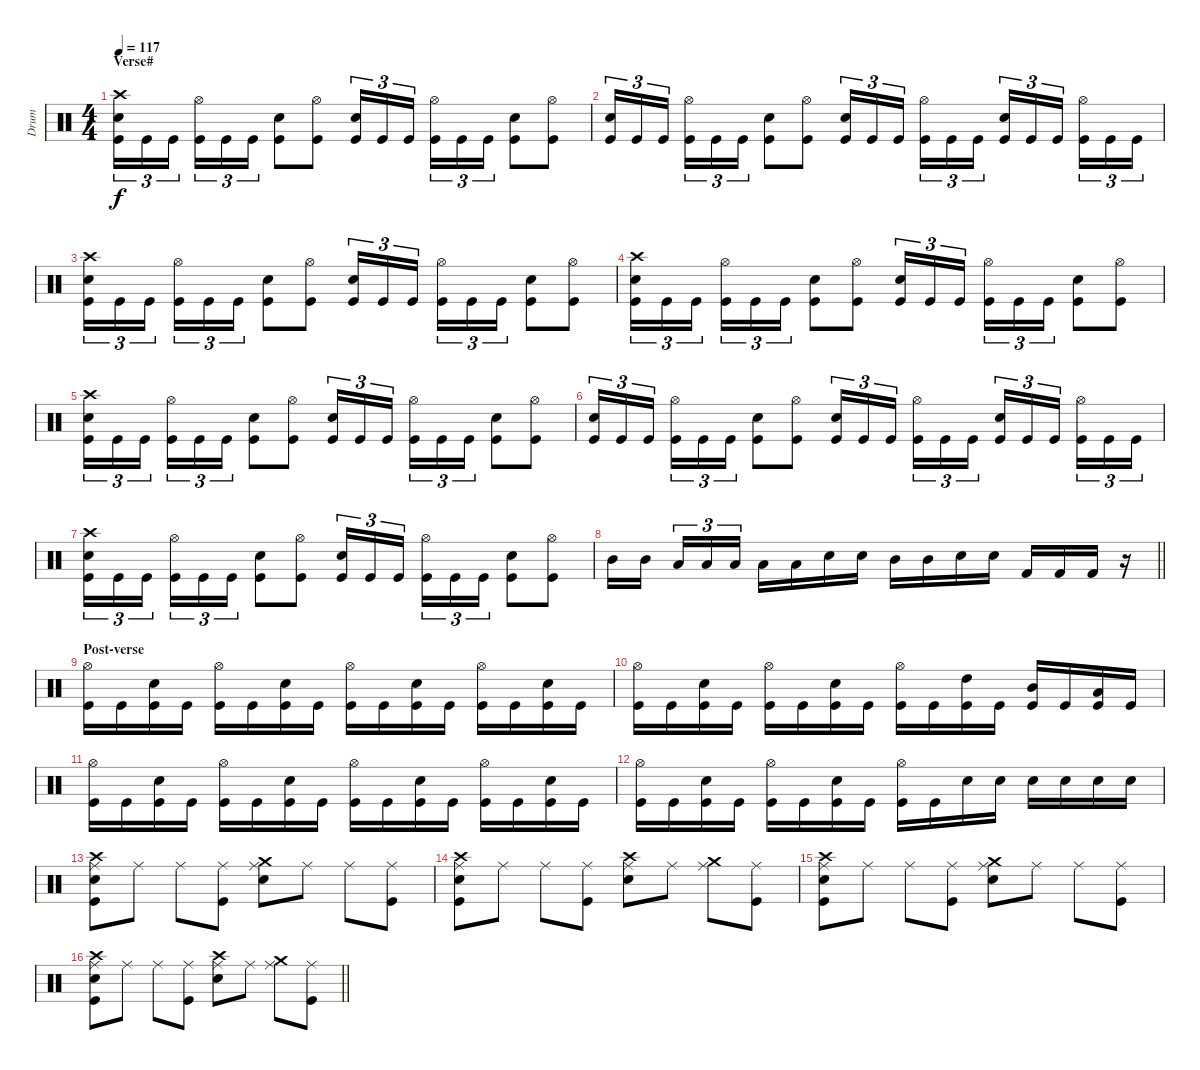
\track ("Drum" "Drum") {instrument percussion}
\staff {score}
\articulation defaults
\ts (4 4)
\section ("" "Verse#")
\tempo 117
\clef neutral
\ks c
("Crash high (hit)" "Kick (hit)" "Snare (hit) 2").16{tu (3 2) dy f} "Kick (hit)".16{tu (3 2)} "Kick (hit)".16{tu (3 2) beam splitsecondary} ("Kick (hit)" "Hi-Hat (open)").16{tu (3 2)} "Kick (hit)".16{tu (3 2)} "Kick (hit)".16{tu (3 2)} ("Kick (hit)" "Snare (hit) 2").8 ("Kick (hit)" "Hi-Hat (open)").8 ("Kick (hit)" "Snare (hit) 2").16{tu (3 2)} "Kick (hit)".16{tu (3 2)} "Kick (hit)".16{tu (3 2) beam splitsecondary} ("Kick (hit)" "Hi-Hat (open)").16{tu (3 2)} "Kick (hit)".16{tu (3 2)} "Kick (hit)".16{tu (3 2)} ("Kick (hit)" "Snare (hit) 2").8 ("Kick (hit)" "Hi-Hat (open)").8 |
("Kick (hit)" "Snare (hit) 2").16{tu (3 2)} "Kick (hit)".16{tu (3 2)} "Kick (hit)".16{tu (3 2) beam splitsecondary} ("Kick (hit)" "Hi-Hat (open)").16{tu (3 2)} "Kick (hit)".16{tu (3 2)} "Kick (hit)".16{tu (3 2)} ("Kick (hit)" "Snare (hit) 2").8 ("Kick (hit)" "Hi-Hat (open)").8 ("Kick (hit)" "Snare (hit) 2").16{tu (3 2)} "Kick (hit)".16{tu (3 2)} "Kick (hit)".16{tu (3 2) beam splitsecondary} ("Kick (hit)" "Hi-Hat (open)").16{tu (3 2)} "Kick (hit)".16{tu (3 2)} "Kick (hit)".16{tu (3 2)} ("Kick (hit)" "Snare (hit) 2").16{tu (3 2)} "Kick (hit)".16{tu (3 2)} "Kick (hit)".16{tu (3 2) beam splitsecondary} ("Kick (hit)" "Hi-Hat (open)").16{tu (3 2)} "Kick (hit)".16{tu (3 2)} "Kick (hit)".16{tu (3 2)} |
("Crash high (hit)" "Kick (hit)" "Snare (hit) 2").16{tu (3 2)} "Kick (hit)".16{tu (3 2)} "Kick (hit)".16{tu (3 2) beam splitsecondary} ("Kick (hit)" "Hi-Hat (open)").16{tu (3 2)} "Kick (hit)".16{tu (3 2)} "Kick (hit)".16{tu (3 2)} ("Kick (hit)" "Snare (hit) 2").8 ("Kick (hit)" "Hi-Hat (open)").8 ("Kick (hit)" "Snare (hit) 2").16{tu (3 2)} "Kick (hit)".16{tu (3 2)} "Kick (hit)".16{tu (3 2) beam splitsecondary} ("Kick (hit)" "Hi-Hat (open)").16{tu (3 2)} "Kick (hit)".16{tu (3 2)} "Kick (hit)".16{tu (3 2)} ("Kick (hit)" "Snare (hit) 2").8 ("Kick (hit)" "Hi-Hat (open)").8 |
("Crash high (hit)" "Kick (hit)" "Snare (hit) 2").16{tu (3 2)} "Kick (hit)".16{tu (3 2)} "Kick (hit)".16{tu (3 2) beam splitsecondary} ("Kick (hit)" "Hi-Hat (open)").16{tu (3 2)} "Kick (hit)".16{tu (3 2)} "Kick (hit)".16{tu (3 2)} ("Kick (hit)" "Snare (hit) 2").8 ("Kick (hit)" "Hi-Hat (open)").8 ("Kick (hit)" "Snare (hit) 2").16{tu (3 2)} "Kick (hit)".16{tu (3 2)} "Kick (hit)".16{tu (3 2) beam splitsecondary} ("Kick (hit)" "Hi-Hat (open)").16{tu (3 2)} "Kick (hit)".16{tu (3 2)} "Kick (hit)".16{tu (3 2)} ("Kick (hit)" "Snare (hit) 2").8 ("Kick (hit)" "Hi-Hat (open)").8 |
("Crash high (hit)" "Kick (hit)" "Snare (hit) 2").16{tu (3 2)} "Kick (hit)".16{tu (3 2)} "Kick (hit)".16{tu (3 2) beam splitsecondary} ("Kick (hit)" "Hi-Hat (open)").16{tu (3 2)} "Kick (hit)".16{tu (3 2)} "Kick (hit)".16{tu (3 2)} ("Kick (hit)" "Snare (hit) 2").8 ("Kick (hit)" "Hi-Hat (open)").8 ("Kick (hit)" "Snare (hit) 2").16{tu (3 2)} "Kick (hit)".16{tu (3 2)} "Kick (hit)".16{tu (3 2) beam splitsecondary} ("Kick (hit)" "Hi-Hat (open)").16{tu (3 2)} "Kick (hit)".16{tu (3 2)} "Kick (hit)".16{tu (3 2)} ("Kick (hit)" "Snare (hit) 2").8 ("Kick (hit)" "Hi-Hat (open)").8 |
("Kick (hit)" "Snare (hit) 2").16{tu (3 2)} "Kick (hit)".16{tu (3 2)} "Kick (hit)".16{tu (3 2) beam splitsecondary} ("Kick (hit)" "Hi-Hat (open)").16{tu (3 2)} "Kick (hit)".16{tu (3 2)} "Kick (hit)".16{tu (3 2)} ("Kick (hit)" "Snare (hit) 2").8 ("Kick (hit)" "Hi-Hat (open)").8 ("Kick (hit)" "Snare (hit) 2").16{tu (3 2)} "Kick (hit)".16{tu (3 2)} "Kick (hit)".16{tu (3 2) beam splitsecondary} ("Kick (hit)" "Hi-Hat (open)").16{tu (3 2)} "Kick (hit)".16{tu (3 2)} "Kick (hit)".16{tu (3 2)} ("Kick (hit)" "Snare (hit) 2").16{tu (3 2)} "Kick (hit)".16{tu (3 2)} "Kick (hit)".16{tu (3 2) beam splitsecondary} ("Kick (hit)" "Hi-Hat (open)").16{tu (3 2)} "Kick (hit)".16{tu (3 2)} "Kick (hit)".16{tu (3 2)} |
("Crash high (hit)" "Kick (hit)" "Snare (hit) 2").16{tu (3 2)} "Kick (hit)".16{tu (3 2)} "Kick (hit)".16{tu (3 2) beam splitsecondary} ("Kick (hit)" "Hi-Hat (open)").16{tu (3 2)} "Kick (hit)".16{tu (3 2)} "Kick (hit)".16{tu (3 2)} ("Kick (hit)" "Snare (hit) 2").8 ("Kick (hit)" "Hi-Hat (open)").8 ("Kick (hit)" "Snare (hit) 2").16{tu (3 2)} "Kick (hit)".16{tu (3 2)} "Kick (hit)".16{tu (3 2) beam splitsecondary} ("Kick (hit)" "Hi-Hat (open)").16{tu (3 2)} "Kick (hit)".16{tu (3 2)} "Kick (hit)".16{tu (3 2)} ("Kick (hit)" "Snare (hit) 2").8 ("Kick (hit)" "Hi-Hat (open)").8 |
\barLineRight lightlight "Mid Tom (hit)".16 "Mid Tom (hit)".16{beam splitsecondary} "Low Tom (hit)".16{tu (3 2)} "Low Tom (hit)".16{tu (3 2)} "Low Tom (hit)".16{tu (3 2)} "Low Tom (hit)".16 "Low Tom (hit)".16 "Electric Snare (hit)".16 "Electric Snare (hit)".16 "Mid Tom (hit)".16 "Mid Tom (hit)".16 "Electric Snare (hit)".16 "Electric Snare (hit)".16 "Kick (hit) 2".16 "Kick (hit) 2".16 "Kick (hit) 2".16
r.16 |
\section ("" "Post-verse")
("Kick (hit)" "Hi-Hat (open)").16 "Kick (hit)".16 ("Kick (hit)" "Snare (hit) 2").16 "Kick (hit)".16 ("Kick (hit)" "Hi-Hat (open)").16 "Kick (hit)".16 ("Kick (hit)" "Snare (hit) 2").16 "Kick (hit)".16 ("Kick (hit)" "Hi-Hat (open)").16 "Kick (hit)".16 ("Kick (hit)" "Snare (hit) 2").16 "Kick (hit)".16 ("Kick (hit)" "Hi-Hat (open)").16 "Kick (hit)".16 ("Kick (hit)" "Snare (hit) 2").16 "Kick (hit)".16 |
("Kick (hit)" "Hi-Hat (open)").16 "Kick (hit)".16 ("Kick (hit)" "Snare (hit) 2").16 "Kick (hit)".16 ("Kick (hit)" "Hi-Hat (open)").16 "Kick (hit)".16 ("Kick (hit)" "Snare (hit) 2").16 "Kick (hit)".16 ("Kick (hit)" "Hi-Hat (open)").16 "Kick (hit)".16 ("High Tom (hit)" "Kick (hit)").16 "Kick (hit)".16 ("Mid Tom (hit)" "Kick (hit)").16 "Kick (hit)".16 ("Low Tom (hit)" "Kick (hit)").16 "Kick (hit)".16 |
("Kick (hit)" "Hi-Hat (open)").16 "Kick (hit)".16 ("Kick (hit)" "Snare (hit) 2").16 "Kick (hit)".16 ("Kick (hit)" "Hi-Hat (open)").16 "Kick (hit)".16 ("Kick (hit)" "Snare (hit) 2").16 "Kick (hit)".16 ("Kick (hit)" "Hi-Hat (open)").16 "Kick (hit)".16 ("Kick (hit)" "Snare (hit) 2").16 "Kick (hit)".16 ("Kick (hit)" "Hi-Hat (open)").16 "Kick (hit)".16 ("Kick (hit)" "Snare (hit) 2").16 "Kick (hit)".16 |
("Kick (hit)" "Hi-Hat (open)").16 "Kick (hit)".16 ("Kick (hit)" "Snare (hit) 2").16 "Kick (hit)".16 ("Kick (hit)" "Hi-Hat (open)").16 "Kick (hit)".16 ("Kick (hit)" "Snare (hit) 2").16 "Kick (hit)".16 ("Kick (hit)" "Hi-Hat (open)").16 "Kick (hit)".16 "Snare (hit) 2".16 "Snare (hit) 2".16 "Snare (hit) 2".16 "Snare (hit) 2".16 "Snare (hit) 2".16 "Snare (hit) 2".16 |
("Ride (middle)" "Kick (hit)" "Snare (hit) 2" "Crash high (hit)").8 "Ride (middle)".8 "Ride (middle)".8 ("Ride (middle)" "Kick (hit)").8 ("Ride (middle)" "Snare (hit) 2" "Crash medium (hit)").8 "Ride (middle)".8 "Ride (middle)".8 ("Ride (middle)" "Kick (hit)").8 |
("Ride (middle)" "Kick (hit)" "Snare (hit) 2" "Crash high (hit)").8 "Ride (middle)".8 "Ride (middle)".8 ("Ride (middle)" "Kick (hit)").8 ("Ride (middle)" "Snare (hit) 2" "Crash high (hit)").8 "Ride (middle)".8 ("Ride (middle)" "Crash medium (hit)").8 ("Ride (middle)" "Kick (hit)").8 |
("Ride (middle)" "Kick (hit)" "Snare (hit) 2" "Crash high (hit)").8 "Ride (middle)".8 "Ride (middle)".8 ("Ride (middle)" "Kick (hit)").8 ("Ride (middle)" "Snare (hit) 2" "Crash medium (hit)").8 "Ride (middle)".8 "Ride (middle)".8 ("Ride (middle)" "Kick (hit)").8 |
\barLineRight lightlight
("Ride (middle)" "Kick (hit)" "Snare (hit) 2" "Crash high (hit)").8 "Ride (middle)".8 "Ride (middle)".8 ("Ride (middle)" "Kick (hit)").8 ("Ride (middle)" "Snare (hit) 2" "Crash high (hit)").8 "Ride (middle)".8 ("Ride (middle)" "Crash medium (hit)").8 ("Ride (middle)" "Kick (hit)").8
